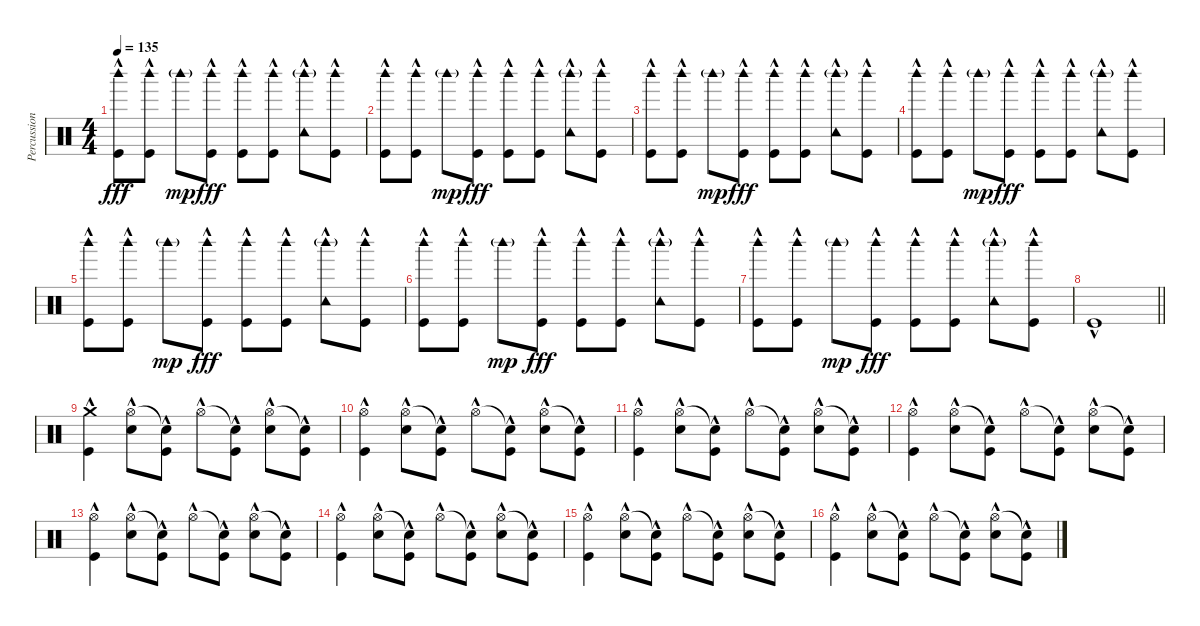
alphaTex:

\track ("Percussions" "Percussion") {instrument percussion}
\staff {score}
\articulation defaults
\ts (4 4)
\tempo 135
\clef neutral
\ks c
("Woodblock high (hit)" "Kick (hit)"{hac}).8{dy fff} ("Woodblock high (hit)" "Kick (hit)"{hac}).8 "Woodblock high (hit)"{g}.8{dy mp} ("Woodblock high (hit)" "Kick (hit)"{hac}).8{dy fff} ("Woodblock high (hit)" "Kick (hit)"{hac}).8 ("Woodblock high (hit)" "Kick (hit)"{hac}).8 ("Woodblock high (hit)"{g} "Tambourine (hit)"{hac}).8 ("Woodblock high (hit)" "Kick (hit)"{hac}).8 |
("Woodblock high (hit)" "Kick (hit)"{hac}).8 ("Woodblock high (hit)" "Kick (hit)"{hac}).8 "Woodblock high (hit)"{g}.8{dy mp} ("Woodblock high (hit)" "Kick (hit)"{hac}).8{dy fff} ("Woodblock high (hit)" "Kick (hit)"{hac}).8 ("Woodblock high (hit)" "Kick (hit)"{hac}).8 ("Woodblock high (hit)"{g} "Tambourine (hit)"{hac}).8 ("Woodblock high (hit)" "Kick (hit)"{hac}).8 |
("Woodblock high (hit)" "Kick (hit)"{hac}).8 ("Woodblock high (hit)" "Kick (hit)"{hac}).8 "Woodblock high (hit)"{g}.8{dy mp} ("Woodblock high (hit)" "Kick (hit)"{hac}).8{dy fff} ("Woodblock high (hit)" "Kick (hit)"{hac}).8 ("Woodblock high (hit)" "Kick (hit)"{hac}).8 ("Woodblock high (hit)"{g} "Tambourine (hit)"{hac}).8 ("Woodblock high (hit)" "Kick (hit)"{hac}).8 |
("Woodblock high (hit)" "Kick (hit)"{hac}).8 ("Woodblock high (hit)" "Kick (hit)"{hac}).8 "Woodblock high (hit)"{g}.8{dy mp} ("Woodblock high (hit)" "Kick (hit)"{hac}).8{dy fff} ("Woodblock high (hit)" "Kick (hit)"{hac}).8 ("Woodblock high (hit)" "Kick (hit)"{hac}).8 ("Woodblock high (hit)"{g} "Tambourine (hit)"{hac}).8 ("Woodblock high (hit)" "Kick (hit)"{hac}).8 |
("Woodblock high (hit)" "Kick (hit)"{hac}).8 ("Woodblock high (hit)" "Kick (hit)"{hac}).8 "Woodblock high (hit)"{g}.8{dy mp} ("Woodblock high (hit)" "Kick (hit)"{hac}).8{dy fff} ("Woodblock high (hit)" "Kick (hit)"{hac}).8 ("Woodblock high (hit)" "Kick (hit)"{hac}).8 ("Woodblock high (hit)"{g} "Tambourine (hit)"{hac}).8 ("Woodblock high (hit)" "Kick (hit)"{hac}).8 |
("Woodblock high (hit)" "Kick (hit)"{hac}).8 ("Woodblock high (hit)" "Kick (hit)"{hac}).8 "Woodblock high (hit)"{g}.8{dy mp} ("Woodblock high (hit)" "Kick (hit)"{hac}).8{dy fff} ("Woodblock high (hit)" "Kick (hit)"{hac}).8 ("Woodblock high (hit)" "Kick (hit)"{hac}).8 ("Woodblock high (hit)"{g} "Tambourine (hit)"{hac}).8 ("Woodblock high (hit)" "Kick (hit)"{hac}).8 |
("Woodblock high (hit)" "Kick (hit)"{hac}).8 ("Woodblock high (hit)" "Kick (hit)"{hac}).8 "Woodblock high (hit)"{g}.8{dy mp} ("Woodblock high (hit)" "Kick (hit)"{hac}).8{dy fff} ("Woodblock high (hit)" "Kick (hit)"{hac}).8 ("Woodblock high (hit)" "Kick (hit)"{hac}).8 ("Woodblock high (hit)"{g} "Tambourine (hit)"{hac}).8 ("Woodblock high (hit)" "Kick (hit)"{hac}).8 |
\barLineRight lightlight "Kick (hit)"{hac}.1
|
("Crash medium (hit)"{hac} "Kick (hit)"{hac}).4 ("Hi-Hat (open)"{hac} "Electric Snare (hit)"{hac}).8 ("Snare (hit)"{t} "Kick (hit)"{hac}).8 "Hi-Hat (open)"{hac}.8 ("Snare (hit)"{t} "Kick (hit)"{hac}).8 ("Hi-Hat (open)"{hac} "Electric Snare (hit)"{hac}).8 ("Snare (hit)"{t} "Kick (hit)"{hac}).8 |
("Hi-Hat (open)"{hac} "Kick (hit)"{hac}).4 ("Hi-Hat (open)"{hac} "Electric Snare (hit)"{hac}).8 ("Snare (hit)"{t} "Kick (hit)"{hac}).8 "Hi-Hat (open)"{hac}.8 ("Snare (hit)"{t} "Kick (hit)"{hac}).8 ("Hi-Hat (open)"{hac} "Electric Snare (hit)"{hac}).8 ("Snare (hit)"{t} "Kick (hit)"{hac}).8 |
("Hi-Hat (open)"{hac} "Kick (hit)"{hac}).4 ("Hi-Hat (open)"{hac} "Electric Snare (hit)"{hac}).8 ("Snare (hit)"{t} "Kick (hit)"{hac}).8 "Hi-Hat (open)"{hac}.8 ("Snare (hit)"{t} "Kick (hit)"{hac}).8 ("Hi-Hat (open)"{hac} "Electric Snare (hit)"{hac}).8 ("Snare (hit)"{t} "Kick (hit)"{hac}).8 |
("Hi-Hat (open)"{hac} "Kick (hit)"{hac}).4 ("Hi-Hat (open)"{hac} "Electric Snare (hit)"{hac}).8 ("Snare (hit)"{t} "Kick (hit)"{hac}).8 "Hi-Hat (open)"{hac}.8 ("Snare (hit)"{t} "Kick (hit)"{hac}).8 ("Hi-Hat (open)"{hac} "Electric Snare (hit)"{hac}).8 ("Snare (hit)"{t} "Kick (hit)"{hac}).8 |
("Hi-Hat (open)"{hac} "Kick (hit)"{hac}).4 ("Hi-Hat (open)"{hac} "Electric Snare (hit)"{hac}).8 ("Snare (hit)"{t} "Kick (hit)"{hac}).8 "Hi-Hat (open)"{hac}.8 ("Snare (hit)"{t} "Kick (hit)"{hac}).8 ("Hi-Hat (open)"{hac} "Electric Snare (hit)"{hac}).8 ("Snare (hit)"{t} "Kick (hit)"{hac}).8 |
("Hi-Hat (open)"{hac} "Kick (hit)"{hac}).4 ("Hi-Hat (open)"{hac} "Electric Snare (hit)"{hac}).8 ("Snare (hit)"{t} "Kick (hit)"{hac}).8 "Hi-Hat (open)"{hac}.8 ("Snare (hit)"{t} "Kick (hit)"{hac}).8 ("Hi-Hat (open)"{hac} "Electric Snare (hit)"{hac}).8 ("Snare (hit)"{t} "Kick (hit)"{hac}).8 |
("Hi-Hat (open)"{hac} "Kick (hit)"{hac}).4 ("Hi-Hat (open)"{hac} "Electric Snare (hit)"{hac}).8 ("Snare (hit)"{t} "Kick (hit)"{hac}).8 "Hi-Hat (open)"{hac}.8 ("Snare (hit)"{t} "Kick (hit)"{hac}).8 ("Hi-Hat (open)"{hac} "Electric Snare (hit)"{hac}).8 ("Snare (hit)"{t} "Kick (hit)"{hac}).8 |
("Hi-Hat (open)"{hac} "Kick (hit)"{hac}).4 ("Hi-Hat (open)"{hac} "Electric Snare (hit)"{hac}).8 ("Snare (hit)"{t} "Kick (hit)"{hac}).8 "Hi-Hat (open)"{hac}.8 ("Snare (hit)"{t} "Kick (hit)"{hac}).8 ("Hi-Hat (open)"{hac} "Electric Snare (hit)"{hac}).8 ("Snare (hit)"{t} "Kick (hit)"{hac}).8
